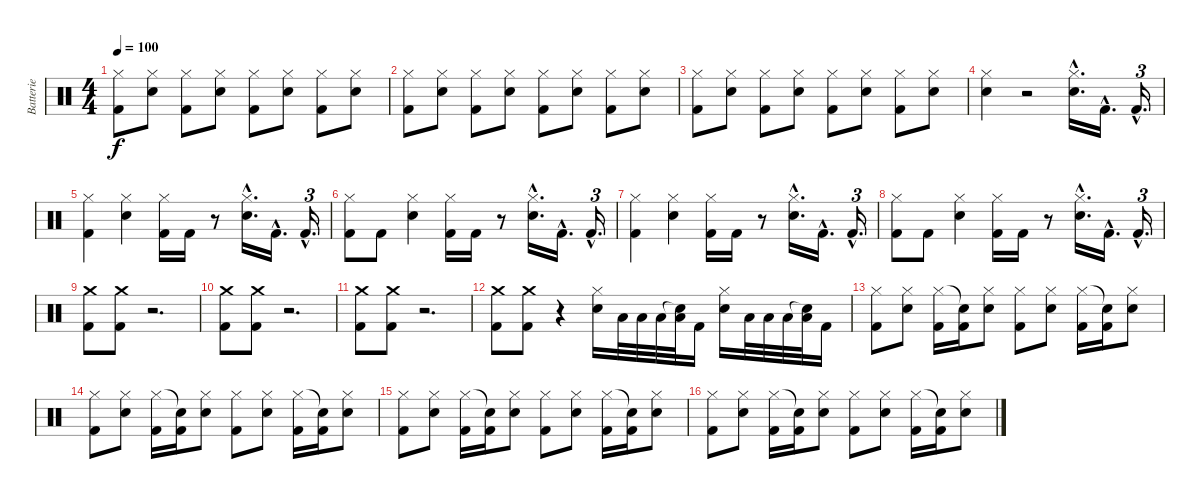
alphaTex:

\track ("Batterie" "Batterie") {instrument percussion}
\staff {score}
\articulation defaults
\ts (4 4)
\tempo 100
\clef neutral
\ks c
("Kick (hit) 2" "Hi-Hat (closed)").8{dy f} ("Electric Snare (hit)" "Hi-Hat (closed)").8 ("Kick (hit) 2" "Hi-Hat (closed)").8 ("Electric Snare (hit)" "Hi-Hat (closed)").8 ("Kick (hit) 2" "Hi-Hat (closed)").8 ("Electric Snare (hit)" "Hi-Hat (closed)").8 ("Kick (hit) 2" "Hi-Hat (closed)").8 ("Electric Snare (hit)" "Hi-Hat (closed)").8 |
("Kick (hit) 2" "Hi-Hat (closed)").8 ("Electric Snare (hit)" "Hi-Hat (closed)").8 ("Kick (hit) 2" "Hi-Hat (closed)").8 ("Electric Snare (hit)" "Hi-Hat (closed)").8 ("Kick (hit) 2" "Hi-Hat (closed)").8 ("Electric Snare (hit)" "Hi-Hat (closed)").8 ("Kick (hit) 2" "Hi-Hat (closed)").8 ("Electric Snare (hit)" "Hi-Hat (closed)").8 |
("Kick (hit) 2" "Hi-Hat (closed)").8 ("Electric Snare (hit)" "Hi-Hat (closed)").8 ("Kick (hit) 2" "Hi-Hat (closed)").8 ("Electric Snare (hit)" "Hi-Hat (closed)").8 ("Kick (hit) 2" "Hi-Hat (closed)").8 ("Electric Snare (hit)" "Hi-Hat (closed)").8 ("Kick (hit) 2" "Hi-Hat (closed)").8 ("Electric Snare (hit)" "Hi-Hat (closed)").8 |
("Electric Snare (hit)" "Hi-Hat (closed)").4 r.2 ("Electric Snare (hit)"{hac} "Hi-Hat (closed)"{hac}).16{d} "Kick (hit) 2"{hac}.16{d} "Kick (hit) 2"{hac}.16{d tu (3 2)} |
("Kick (hit) 2" "Hi-Hat (closed)").4 ("Electric Snare (hit)" "Hi-Hat (closed)").4 ("Kick (hit) 2" "Hi-Hat (closed)").16 "Kick (hit) 2".16 r.8 ("Electric Snare (hit)"{hac} "Hi-Hat (closed)"{hac}).16{d} "Kick (hit) 2"{hac}.16{d} "Kick (hit) 2"{hac}.16{d tu (3 2)} |
("Kick (hit) 2" "Hi-Hat (closed)").8 "Kick (hit) 2".8 ("Electric Snare (hit)" "Hi-Hat (closed)").4 ("Kick (hit) 2" "Hi-Hat (closed)").16 "Kick (hit) 2".16 r.8 ("Electric Snare (hit)"{hac} "Hi-Hat (closed)"{hac}).16{d} "Kick (hit) 2"{hac}.16{d} "Kick (hit) 2"{hac}.16{d tu (3 2)} |
("Kick (hit) 2" "Hi-Hat (closed)").4 ("Electric Snare (hit)" "Hi-Hat (closed)").4 ("Kick (hit) 2" "Hi-Hat (closed)").16 "Kick (hit) 2".16 r.8 ("Electric Snare (hit)"{hac} "Hi-Hat (closed)"{hac}).16{d} "Kick (hit) 2"{hac}.16{d} "Kick (hit) 2"{hac}.16{d tu (3 2)} |
("Kick (hit) 2" "Hi-Hat (closed)").8 "Kick (hit) 2".8 ("Electric Snare (hit)" "Hi-Hat (closed)").4 ("Kick (hit) 2" "Hi-Hat (closed)").16 "Kick (hit) 2".16 r.8 ("Electric Snare (hit)"{hac} "Hi-Hat (closed)"{hac}).16{d} "Kick (hit) 2"{hac}.16{d} "Kick (hit) 2"{hac}.16{d tu (3 2)} |
("Kick (hit) 2" "Crash medium (hit)").8 ("Kick (hit) 2" "Crash medium (hit)").8 r.2{d} |
("Kick (hit) 2" "Crash medium (hit)").8 ("Kick (hit) 2" "Crash medium (hit)").8 r.2{d} |
("Kick (hit) 2" "Crash medium (hit)").8 ("Kick (hit) 2" "Crash medium (hit)").8 r.2{d} |
("Kick (hit) 2" "Crash medium (hit)").8 ("Kick (hit) 2" "Crash medium (hit)").8 r.4 ("Electric Snare (hit)" "Hi-Hat (closed)").16 "Low Tom (hit)".32 "Low Tom (hit)".32 "Low Tom (hit)".32 ("Snare (hit)"{t} "Low Tom (hit)").32 "Kick (hit) 2".16 ("Electric Snare (hit)" "Hi-Hat (closed)").16 "Low Tom (hit)".32 "Low Tom (hit)".32 "Low Tom (hit)".32 ("Snare (hit)"{t} "Low Tom (hit)").32 "Kick (hit) 2".16 |
("Kick (hit) 2" "Hi-Hat (closed)").8 ("Electric Snare (hit)" "Hi-Hat (closed)").8 ("Kick (hit) 2" "Hi-Hat (closed)").16 ("Kick (hit) 2" "Snare (hit)"{t}).16 ("Electric Snare (hit)" "Hi-Hat (closed)").8 ("Kick (hit) 2" "Hi-Hat (closed)").8 ("Electric Snare (hit)" "Hi-Hat (closed)").8 ("Kick (hit) 2" "Hi-Hat (closed)").16 ("Kick (hit) 2" "Snare (hit)"{t}).16 ("Electric Snare (hit)" "Hi-Hat (closed)").8 |
("Kick (hit) 2" "Hi-Hat (closed)").8 ("Electric Snare (hit)" "Hi-Hat (closed)").8 ("Kick (hit) 2" "Hi-Hat (closed)").16 ("Kick (hit) 2" "Snare (hit)"{t}).16 ("Electric Snare (hit)" "Hi-Hat (closed)").8 ("Kick (hit) 2" "Hi-Hat (closed)").8 ("Electric Snare (hit)" "Hi-Hat (closed)").8 ("Kick (hit) 2" "Hi-Hat (closed)").16 ("Kick (hit) 2" "Snare (hit)"{t}).16 ("Electric Snare (hit)" "Hi-Hat (closed)").8 |
("Kick (hit) 2" "Hi-Hat (closed)").8 ("Electric Snare (hit)" "Hi-Hat (closed)").8 ("Kick (hit) 2" "Hi-Hat (closed)").16 ("Kick (hit) 2" "Snare (hit)"{t}).16 ("Electric Snare (hit)" "Hi-Hat (closed)").8 ("Kick (hit) 2" "Hi-Hat (closed)").8 ("Electric Snare (hit)" "Hi-Hat (closed)").8 ("Kick (hit) 2" "Hi-Hat (closed)").16 ("Kick (hit) 2" "Snare (hit)"{t}).16 ("Electric Snare (hit)" "Hi-Hat (closed)").8 |
("Kick (hit) 2" "Hi-Hat (closed)").8 ("Electric Snare (hit)" "Hi-Hat (closed)").8 ("Kick (hit) 2" "Hi-Hat (closed)").16 ("Kick (hit) 2" "Snare (hit)"{t}).16 ("Electric Snare (hit)" "Hi-Hat (closed)").8 ("Kick (hit) 2" "Hi-Hat (closed)").8 ("Electric Snare (hit)" "Hi-Hat (closed)").8 ("Kick (hit) 2" "Hi-Hat (closed)").16 ("Kick (hit) 2" "Snare (hit)"{t}).16 ("Electric Snare (hit)" "Hi-Hat (closed)").8
